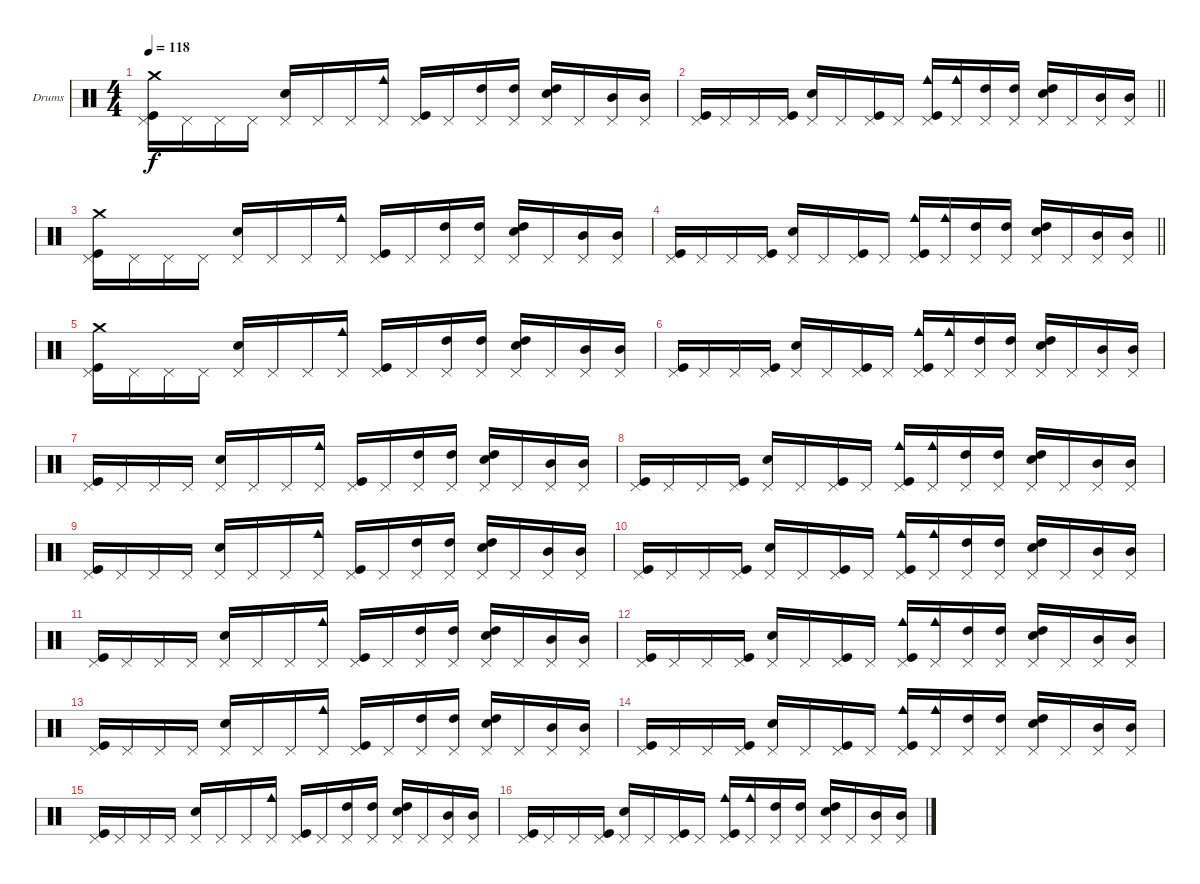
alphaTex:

\bracketExtendMode groupsimilarinstruments
\firstSystemTrackNameOrientation horizontal
\otherSystemsTrackNameOrientation horizontal
\track ("Уданые" "Drums") {instrument percussion}
\staff {score}
\articulation defaults
\ts (4 4)
\tempo 118
\clef neutral
\ks c
("Pedal Hi-Hat (hit)" "Kick (hit)" "Crash medium (hit)").16{dy f} "Pedal Hi-Hat (hit)".16 "Pedal Hi-Hat (hit)".16 "Pedal Hi-Hat (hit)".16 ("Pedal Hi-Hat (hit)" "Snare (hit) 2").16 "Pedal Hi-Hat (hit)".16 "Pedal Hi-Hat (hit)".16 ("Pedal Hi-Hat (hit)" "Cowbell medium (hit)").16 ("Pedal Hi-Hat (hit)" "Kick (hit)").16 "Pedal Hi-Hat (hit)".16 ("Pedal Hi-Hat (hit)" "High Tom (hit)").16 ("Pedal Hi-Hat (hit)" "High Tom (hit)").16 ("Pedal Hi-Hat (hit)" "High Tom (hit)" "Snare (hit) 2").16 "Pedal Hi-Hat (hit)".16 ("Pedal Hi-Hat (hit)" "Mid Tom (hit)").16 ("Pedal Hi-Hat (hit)" "Mid Tom (hit)").16 |
\barLineRight lightlight
("Pedal Hi-Hat (hit)" "Kick (hit)").16 "Pedal Hi-Hat (hit)".16 "Pedal Hi-Hat (hit)".16 ("Pedal Hi-Hat (hit)" "Kick (hit)").16 ("Pedal Hi-Hat (hit)" "Snare (hit) 2").16 "Pedal Hi-Hat (hit)".16 ("Pedal Hi-Hat (hit)" "Kick (hit)").16 "Pedal Hi-Hat (hit)".16 ("Pedal Hi-Hat (hit)" "Kick (hit)" "Cowbell medium (hit)").16 ("Pedal Hi-Hat (hit)" "Cowbell medium (hit)").16 ("Pedal Hi-Hat (hit)" "High Tom (hit)").16 ("Pedal Hi-Hat (hit)" "High Tom (hit)").16 ("Pedal Hi-Hat (hit)" "High Tom (hit)" "Snare (hit) 2").16 "Pedal Hi-Hat (hit)".16 ("Pedal Hi-Hat (hit)" "Mid Tom (hit)").16 ("Pedal Hi-Hat (hit)" "Mid Tom (hit)").16 |
("Pedal Hi-Hat (hit)" "Kick (hit)" "Crash medium (hit)").16 "Pedal Hi-Hat (hit)".16 "Pedal Hi-Hat (hit)".16 "Pedal Hi-Hat (hit)".16 ("Pedal Hi-Hat (hit)" "Snare (hit) 2").16 "Pedal Hi-Hat (hit)".16 "Pedal Hi-Hat (hit)".16 ("Pedal Hi-Hat (hit)" "Cowbell medium (hit)").16 ("Pedal Hi-Hat (hit)" "Kick (hit)").16 "Pedal Hi-Hat (hit)".16 ("Pedal Hi-Hat (hit)" "High Tom (hit)").16 ("Pedal Hi-Hat (hit)" "High Tom (hit)").16 ("Pedal Hi-Hat (hit)" "High Tom (hit)" "Snare (hit) 2").16 "Pedal Hi-Hat (hit)".16 ("Pedal Hi-Hat (hit)" "Mid Tom (hit)").16 ("Pedal Hi-Hat (hit)" "Mid Tom (hit)").16 |
\barLineRight lightlight
("Pedal Hi-Hat (hit)" "Kick (hit)").16 "Pedal Hi-Hat (hit)".16 "Pedal Hi-Hat (hit)".16 ("Pedal Hi-Hat (hit)" "Kick (hit)").16 ("Pedal Hi-Hat (hit)" "Snare (hit) 2").16 "Pedal Hi-Hat (hit)".16 ("Pedal Hi-Hat (hit)" "Kick (hit)").16 "Pedal Hi-Hat (hit)".16 ("Pedal Hi-Hat (hit)" "Kick (hit)" "Cowbell medium (hit)").16 ("Pedal Hi-Hat (hit)" "Cowbell medium (hit)").16 ("Pedal Hi-Hat (hit)" "High Tom (hit)").16 ("Pedal Hi-Hat (hit)" "High Tom (hit)").16 ("Pedal Hi-Hat (hit)" "High Tom (hit)" "Snare (hit) 2").16 "Pedal Hi-Hat (hit)".16 ("Pedal Hi-Hat (hit)" "Mid Tom (hit)").16 ("Pedal Hi-Hat (hit)" "Mid Tom (hit)").16 |
("Pedal Hi-Hat (hit)" "Kick (hit)" "Crash medium (hit)").16 "Pedal Hi-Hat (hit)".16 "Pedal Hi-Hat (hit)".16 "Pedal Hi-Hat (hit)".16 ("Pedal Hi-Hat (hit)" "Snare (hit) 2").16 "Pedal Hi-Hat (hit)".16 "Pedal Hi-Hat (hit)".16 ("Pedal Hi-Hat (hit)" "Cowbell medium (hit)").16 ("Pedal Hi-Hat (hit)" "Kick (hit)").16 "Pedal Hi-Hat (hit)".16 ("Pedal Hi-Hat (hit)" "High Tom (hit)").16 ("Pedal Hi-Hat (hit)" "High Tom (hit)").16 ("Pedal Hi-Hat (hit)" "High Tom (hit)" "Snare (hit) 2").16 "Pedal Hi-Hat (hit)".16 ("Pedal Hi-Hat (hit)" "Mid Tom (hit)").16 ("Pedal Hi-Hat (hit)" "Mid Tom (hit)").16 |
("Pedal Hi-Hat (hit)" "Kick (hit)").16 "Pedal Hi-Hat (hit)".16 "Pedal Hi-Hat (hit)".16 ("Pedal Hi-Hat (hit)" "Kick (hit)").16 ("Pedal Hi-Hat (hit)" "Snare (hit) 2").16 "Pedal Hi-Hat (hit)".16 ("Pedal Hi-Hat (hit)" "Kick (hit)").16 "Pedal Hi-Hat (hit)".16 ("Pedal Hi-Hat (hit)" "Kick (hit)" "Cowbell medium (hit)").16 ("Pedal Hi-Hat (hit)" "Cowbell medium (hit)").16 ("Pedal Hi-Hat (hit)" "High Tom (hit)").16 ("Pedal Hi-Hat (hit)" "High Tom (hit)").16 ("Pedal Hi-Hat (hit)" "High Tom (hit)" "Snare (hit) 2").16 "Pedal Hi-Hat (hit)".16 ("Pedal Hi-Hat (hit)" "Mid Tom (hit)").16 ("Pedal Hi-Hat (hit)" "Mid Tom (hit)").16 |
("Pedal Hi-Hat (hit)" "Kick (hit)").16 "Pedal Hi-Hat (hit)".16 "Pedal Hi-Hat (hit)".16 "Pedal Hi-Hat (hit)".16 ("Pedal Hi-Hat (hit)" "Snare (hit) 2").16 "Pedal Hi-Hat (hit)".16 "Pedal Hi-Hat (hit)".16 ("Pedal Hi-Hat (hit)" "Cowbell medium (hit)").16 ("Pedal Hi-Hat (hit)" "Kick (hit)").16 "Pedal Hi-Hat (hit)".16 ("Pedal Hi-Hat (hit)" "High Tom (hit)").16 ("Pedal Hi-Hat (hit)" "High Tom (hit)").16 ("Pedal Hi-Hat (hit)" "High Tom (hit)" "Snare (hit) 2").16 "Pedal Hi-Hat (hit)".16 ("Pedal Hi-Hat (hit)" "Mid Tom (hit)").16 ("Pedal Hi-Hat (hit)" "Mid Tom (hit)").16 |
("Pedal Hi-Hat (hit)" "Kick (hit)").16 "Pedal Hi-Hat (hit)".16 "Pedal Hi-Hat (hit)".16 ("Pedal Hi-Hat (hit)" "Kick (hit)").16 ("Pedal Hi-Hat (hit)" "Snare (hit) 2").16 "Pedal Hi-Hat (hit)".16 ("Pedal Hi-Hat (hit)" "Kick (hit)").16 "Pedal Hi-Hat (hit)".16 ("Pedal Hi-Hat (hit)" "Kick (hit)" "Cowbell medium (hit)").16 ("Pedal Hi-Hat (hit)" "Cowbell medium (hit)").16 ("Pedal Hi-Hat (hit)" "High Tom (hit)").16 ("Pedal Hi-Hat (hit)" "High Tom (hit)").16 ("Pedal Hi-Hat (hit)" "High Tom (hit)" "Snare (hit) 2").16 "Pedal Hi-Hat (hit)".16 ("Pedal Hi-Hat (hit)" "Mid Tom (hit)").16 ("Pedal Hi-Hat (hit)" "Mid Tom (hit)").16 |
("Pedal Hi-Hat (hit)" "Kick (hit)").16 "Pedal Hi-Hat (hit)".16 "Pedal Hi-Hat (hit)".16 "Pedal Hi-Hat (hit)".16 ("Pedal Hi-Hat (hit)" "Snare (hit) 2").16 "Pedal Hi-Hat (hit)".16 "Pedal Hi-Hat (hit)".16 ("Pedal Hi-Hat (hit)" "Cowbell medium (hit)").16 ("Pedal Hi-Hat (hit)" "Kick (hit)").16 "Pedal Hi-Hat (hit)".16 ("Pedal Hi-Hat (hit)" "High Tom (hit)").16 ("Pedal Hi-Hat (hit)" "High Tom (hit)").16 ("Pedal Hi-Hat (hit)" "High Tom (hit)" "Snare (hit) 2").16 "Pedal Hi-Hat (hit)".16 ("Pedal Hi-Hat (hit)" "Mid Tom (hit)").16 ("Pedal Hi-Hat (hit)" "Mid Tom (hit)").16 |
("Pedal Hi-Hat (hit)" "Kick (hit)").16 "Pedal Hi-Hat (hit)".16 "Pedal Hi-Hat (hit)".16 ("Pedal Hi-Hat (hit)" "Kick (hit)").16 ("Pedal Hi-Hat (hit)" "Snare (hit) 2").16 "Pedal Hi-Hat (hit)".16 ("Pedal Hi-Hat (hit)" "Kick (hit)").16 "Pedal Hi-Hat (hit)".16 ("Pedal Hi-Hat (hit)" "Kick (hit)" "Cowbell medium (hit)").16 ("Pedal Hi-Hat (hit)" "Cowbell medium (hit)").16 ("Pedal Hi-Hat (hit)" "High Tom (hit)").16 ("Pedal Hi-Hat (hit)" "High Tom (hit)").16 ("Pedal Hi-Hat (hit)" "High Tom (hit)" "Snare (hit) 2").16 "Pedal Hi-Hat (hit)".16 ("Pedal Hi-Hat (hit)" "Mid Tom (hit)").16 ("Pedal Hi-Hat (hit)" "Mid Tom (hit)").16 |
("Pedal Hi-Hat (hit)" "Kick (hit)").16 "Pedal Hi-Hat (hit)".16 "Pedal Hi-Hat (hit)".16 "Pedal Hi-Hat (hit)".16 ("Pedal Hi-Hat (hit)" "Snare (hit) 2").16 "Pedal Hi-Hat (hit)".16 "Pedal Hi-Hat (hit)".16 ("Pedal Hi-Hat (hit)" "Cowbell medium (hit)").16 ("Pedal Hi-Hat (hit)" "Kick (hit)").16 "Pedal Hi-Hat (hit)".16 ("Pedal Hi-Hat (hit)" "High Tom (hit)").16 ("Pedal Hi-Hat (hit)" "High Tom (hit)").16 ("Pedal Hi-Hat (hit)" "High Tom (hit)" "Snare (hit) 2").16 "Pedal Hi-Hat (hit)".16 ("Pedal Hi-Hat (hit)" "Mid Tom (hit)").16 ("Pedal Hi-Hat (hit)" "Mid Tom (hit)").16 |
("Pedal Hi-Hat (hit)" "Kick (hit)").16 "Pedal Hi-Hat (hit)".16 "Pedal Hi-Hat (hit)".16 ("Pedal Hi-Hat (hit)" "Kick (hit)").16 ("Pedal Hi-Hat (hit)" "Snare (hit) 2").16 "Pedal Hi-Hat (hit)".16 ("Pedal Hi-Hat (hit)" "Kick (hit)").16 "Pedal Hi-Hat (hit)".16 ("Pedal Hi-Hat (hit)" "Kick (hit)" "Cowbell medium (hit)").16 ("Pedal Hi-Hat (hit)" "Cowbell medium (hit)").16 ("Pedal Hi-Hat (hit)" "High Tom (hit)").16 ("Pedal Hi-Hat (hit)" "High Tom (hit)").16 ("Pedal Hi-Hat (hit)" "High Tom (hit)" "Snare (hit) 2").16 "Pedal Hi-Hat (hit)".16 ("Pedal Hi-Hat (hit)" "Mid Tom (hit)").16 ("Pedal Hi-Hat (hit)" "Mid Tom (hit)").16 |
("Pedal Hi-Hat (hit)" "Kick (hit)").16 "Pedal Hi-Hat (hit)".16 "Pedal Hi-Hat (hit)".16 "Pedal Hi-Hat (hit)".16 ("Pedal Hi-Hat (hit)" "Snare (hit) 2").16 "Pedal Hi-Hat (hit)".16 "Pedal Hi-Hat (hit)".16 ("Pedal Hi-Hat (hit)" "Cowbell medium (hit)").16 ("Pedal Hi-Hat (hit)" "Kick (hit)").16 "Pedal Hi-Hat (hit)".16 ("Pedal Hi-Hat (hit)" "High Tom (hit)").16 ("Pedal Hi-Hat (hit)" "High Tom (hit)").16 ("Pedal Hi-Hat (hit)" "High Tom (hit)" "Snare (hit) 2").16 "Pedal Hi-Hat (hit)".16 ("Pedal Hi-Hat (hit)" "Mid Tom (hit)").16 ("Pedal Hi-Hat (hit)" "Mid Tom (hit)").16 |
("Pedal Hi-Hat (hit)" "Kick (hit)").16 "Pedal Hi-Hat (hit)".16 "Pedal Hi-Hat (hit)".16 ("Pedal Hi-Hat (hit)" "Kick (hit)").16 ("Pedal Hi-Hat (hit)" "Snare (hit) 2").16 "Pedal Hi-Hat (hit)".16 ("Pedal Hi-Hat (hit)" "Kick (hit)").16 "Pedal Hi-Hat (hit)".16 ("Pedal Hi-Hat (hit)" "Kick (hit)" "Cowbell medium (hit)").16 ("Pedal Hi-Hat (hit)" "Cowbell medium (hit)").16 ("Pedal Hi-Hat (hit)" "High Tom (hit)").16 ("Pedal Hi-Hat (hit)" "High Tom (hit)").16 ("Pedal Hi-Hat (hit)" "High Tom (hit)" "Snare (hit) 2").16 "Pedal Hi-Hat (hit)".16 ("Pedal Hi-Hat (hit)" "Mid Tom (hit)").16 ("Pedal Hi-Hat (hit)" "Mid Tom (hit)").16 |
("Pedal Hi-Hat (hit)" "Kick (hit)").16 "Pedal Hi-Hat (hit)".16 "Pedal Hi-Hat (hit)".16 "Pedal Hi-Hat (hit)".16 ("Pedal Hi-Hat (hit)" "Snare (hit) 2").16 "Pedal Hi-Hat (hit)".16 "Pedal Hi-Hat (hit)".16 ("Pedal Hi-Hat (hit)" "Cowbell medium (hit)").16 ("Pedal Hi-Hat (hit)" "Kick (hit)").16 "Pedal Hi-Hat (hit)".16 ("Pedal Hi-Hat (hit)" "High Tom (hit)").16 ("Pedal Hi-Hat (hit)" "High Tom (hit)").16 ("Pedal Hi-Hat (hit)" "High Tom (hit)" "Snare (hit) 2").16 "Pedal Hi-Hat (hit)".16 ("Pedal Hi-Hat (hit)" "Mid Tom (hit)").16 ("Pedal Hi-Hat (hit)" "Mid Tom (hit)").16 |
("Pedal Hi-Hat (hit)" "Kick (hit)").16 "Pedal Hi-Hat (hit)".16 "Pedal Hi-Hat (hit)".16 ("Pedal Hi-Hat (hit)" "Kick (hit)").16 ("Pedal Hi-Hat (hit)" "Snare (hit) 2").16 "Pedal Hi-Hat (hit)".16 ("Pedal Hi-Hat (hit)" "Kick (hit)").16 "Pedal Hi-Hat (hit)".16 ("Pedal Hi-Hat (hit)" "Kick (hit)" "Cowbell medium (hit)").16 ("Pedal Hi-Hat (hit)" "Cowbell medium (hit)").16 ("Pedal Hi-Hat (hit)" "High Tom (hit)").16 ("Pedal Hi-Hat (hit)" "High Tom (hit)").16 ("Pedal Hi-Hat (hit)" "High Tom (hit)" "Snare (hit) 2").16 "Pedal Hi-Hat (hit)".16 ("Pedal Hi-Hat (hit)" "Mid Tom (hit)").16 ("Pedal Hi-Hat (hit)" "Mid Tom (hit)").16
